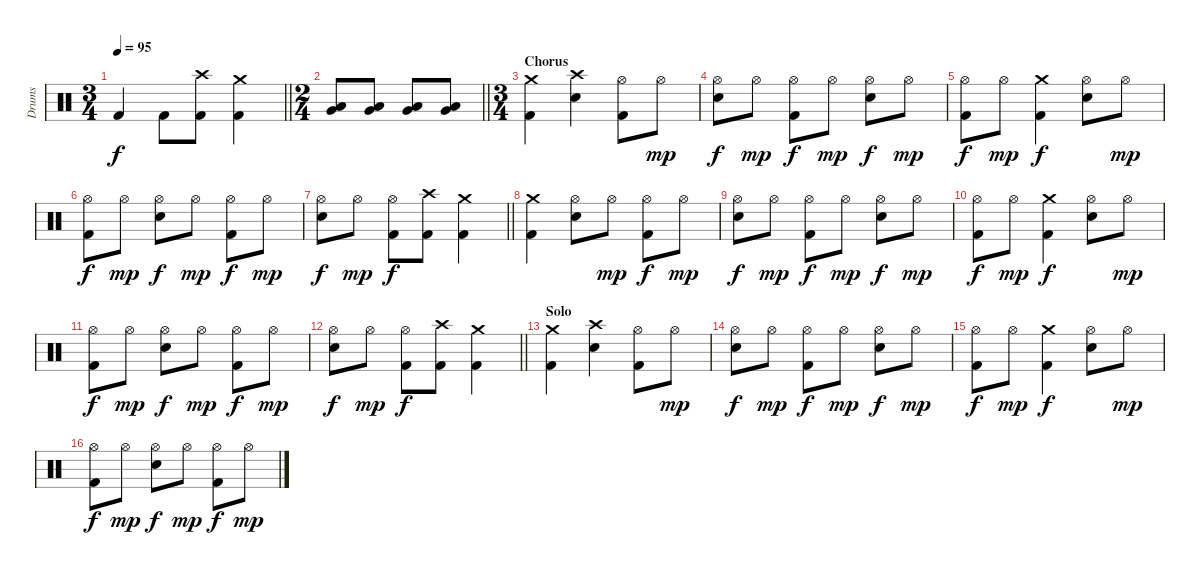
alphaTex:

\track ("Drums" "Drums") {instrument percussion}
\staff {score}
\articulation defaults
\ts (3 4)
\tempo 95
\clef neutral
\barLineRight lightlight
\ks c "Kick (hit) 2".4{dy f} "Kick (hit) 2".8
("Crash high (hit)" "Kick (hit) 2").8 ("Crash medium (hit)" "Kick (hit) 2").4 |
\ts (2 4)
\barLineRight lightlight
("Very Low Tom (hit)" "Low Floor Tom (hit)").8 ("Very Low Tom (hit)" "Low Floor Tom (hit)").8 ("Very Low Tom (hit)" "Low Floor Tom (hit)").8 ("Very Low Tom (hit)" "Low Floor Tom (hit)").8 |
\ts (3 4)
\section ("" "Chorus")
("Crash medium (hit)" "Kick (hit) 2").4 ("Crash high (hit)" "Snare (hit) 2").4 ("Hi-Hat (open)" "Kick (hit) 2").8 "Hi-Hat (open)".8{dy mp} |
("Hi-Hat (open)" "Snare (hit) 2").8{dy f} "Hi-Hat (open)".8{dy mp} ("Hi-Hat (open)" "Kick (hit) 2").8{dy f} "Hi-Hat (open)".8{dy mp} ("Hi-Hat (open)" "Snare (hit) 2").8{dy f} "Hi-Hat (open)".8{dy mp} |
("Hi-Hat (open)" "Kick (hit) 2").8{dy f} "Hi-Hat (open)".8{dy mp} ("Crash medium (hit)" "Kick (hit) 2").4{dy f} ("Hi-Hat (open)" "Snare (hit) 2").8 "Hi-Hat (open)".8{dy mp} |
("Hi-Hat (open)" "Kick (hit) 2").8{dy f} "Hi-Hat (open)".8{dy mp} ("Hi-Hat (open)" "Snare (hit) 2").8{dy f} "Hi-Hat (open)".8{dy mp} ("Hi-Hat (open)" "Kick (hit) 2").8{dy f} "Hi-Hat (open)".8{dy mp} |
\barLineRight lightlight
("Hi-Hat (open)" "Snare (hit) 2").8{dy f} "Hi-Hat (open)".8{dy mp} ("Hi-Hat (open)" "Kick (hit) 2").8{dy f} ("Crash high (hit)" "Kick (hit) 2").8 ("Crash medium (hit)" "Kick (hit) 2").4 |
("Crash medium (hit)" "Kick (hit) 2").4 ("Hi-Hat (open)" "Snare (hit) 2").8 "Hi-Hat (open)".8{dy mp} ("Hi-Hat (open)" "Kick (hit) 2").8{dy f} "Hi-Hat (open)".8{dy mp} |
("Hi-Hat (open)" "Snare (hit) 2").8{dy f} "Hi-Hat (open)".8{dy mp} ("Hi-Hat (open)" "Kick (hit) 2").8{dy f} "Hi-Hat (open)".8{dy mp} ("Hi-Hat (open)" "Snare (hit) 2").8{dy f} "Hi-Hat (open)".8{dy mp} |
("Hi-Hat (open)" "Kick (hit) 2").8{dy f} "Hi-Hat (open)".8{dy mp} ("Crash medium (hit)" "Kick (hit) 2").4{dy f} ("Hi-Hat (open)" "Snare (hit) 2").8 "Hi-Hat (open)".8{dy mp} |
("Hi-Hat (open)" "Kick (hit) 2").8{dy f} "Hi-Hat (open)".8{dy mp} ("Hi-Hat (open)" "Snare (hit) 2").8{dy f} "Hi-Hat (open)".8{dy mp} ("Hi-Hat (open)" "Kick (hit) 2").8{dy f} "Hi-Hat (open)".8{dy mp} |
\barLineRight lightlight
("Hi-Hat (open)" "Snare (hit) 2").8{dy f} "Hi-Hat (open)".8{dy mp} ("Hi-Hat (open)" "Kick (hit) 2").8{dy f} ("Crash high (hit)" "Kick (hit) 2").8 ("Crash medium (hit)" "Kick (hit) 2").4 |
\section ("" "Solo")
("Crash medium (hit)" "Kick (hit) 2").4 ("Crash high (hit)" "Snare (hit) 2").4 ("Hi-Hat (open)" "Kick (hit) 2").8 "Hi-Hat (open)".8{dy mp} |
("Hi-Hat (open)" "Snare (hit) 2").8{dy f} "Hi-Hat (open)".8{dy mp} ("Hi-Hat (open)" "Kick (hit) 2").8{dy f} "Hi-Hat (open)".8{dy mp} ("Hi-Hat (open)" "Snare (hit) 2").8{dy f} "Hi-Hat (open)".8{dy mp} |
("Hi-Hat (open)" "Kick (hit) 2").8{dy f} "Hi-Hat (open)".8{dy mp} ("Crash medium (hit)" "Kick (hit) 2").4{dy f} ("Hi-Hat (open)" "Snare (hit) 2").8 "Hi-Hat (open)".8{dy mp} |
("Hi-Hat (open)" "Kick (hit) 2").8{dy f} "Hi-Hat (open)".8{dy mp} ("Hi-Hat (open)" "Snare (hit) 2").8{dy f} "Hi-Hat (open)".8{dy mp} ("Hi-Hat (open)" "Kick (hit) 2").8{dy f} "Hi-Hat (open)".8{dy mp}
